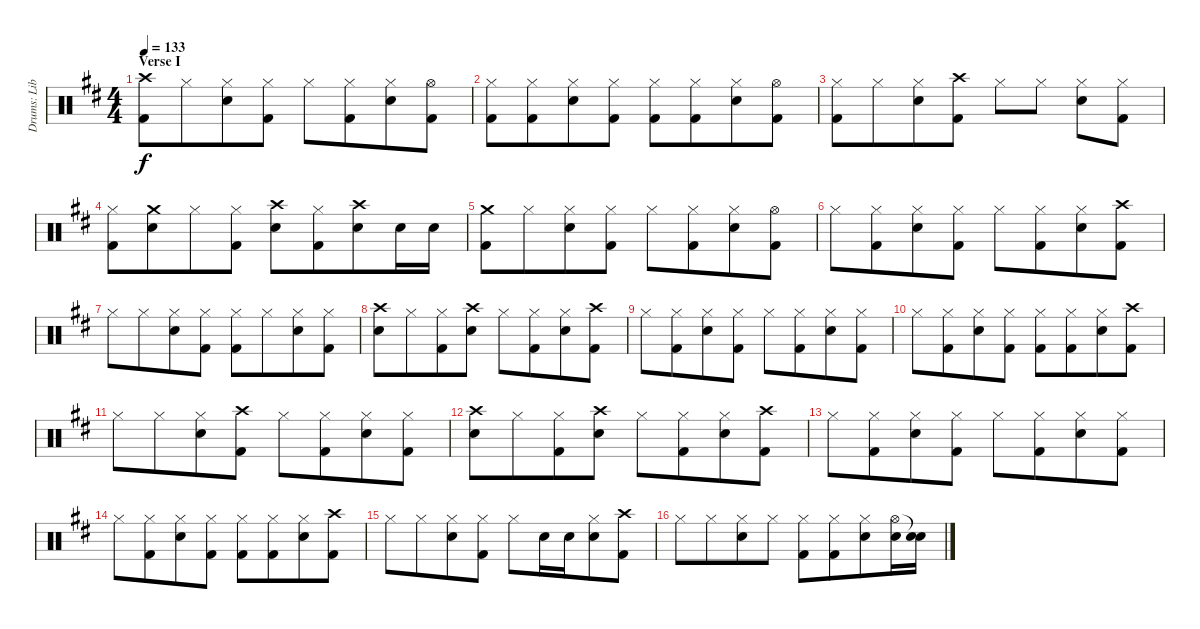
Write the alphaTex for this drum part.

\track ("Drums: Liberty" "Drums: Lib") {instrument percussion}
\staff {score}
\articulation defaults
\ts (4 4)
\section ("" "Verse I")
\tempo 133
\clef neutral
\ks d
("Crash high (hit)" "Kick (hit) 2").8{dy f} "Hi-Hat (closed)".8{beam merge} ("Hi-Hat (closed)" "Electric Snare (hit)").8 ("Hi-Hat (closed)" "Kick (hit) 2").8 "Hi-Hat (closed)".8 ("Hi-Hat (closed)" "Kick (hit) 2").8{beam merge} ("Hi-Hat (closed)" "Electric Snare (hit)").8 ("Hi-Hat (open)" "Kick (hit) 2").8 |
("Hi-Hat (closed)" "Kick (hit) 2").8 ("Hi-Hat (closed)" "Kick (hit) 2").8{beam merge} ("Hi-Hat (closed)" "Electric Snare (hit)").8 ("Hi-Hat (closed)" "Kick (hit) 2").8 ("Hi-Hat (closed)" "Kick (hit) 2").8 ("Hi-Hat (closed)" "Kick (hit) 2").8{beam merge} ("Hi-Hat (closed)" "Electric Snare (hit)").8 ("Hi-Hat (open)" "Kick (hit) 2").8 |
("Hi-Hat (closed)" "Kick (hit) 2").8 "Hi-Hat (closed)".8{beam merge} ("Hi-Hat (closed)" "Electric Snare (hit)").8 ("Crash high (hit)" "Kick (hit) 2").8 "Hi-Hat (closed)".8 "Hi-Hat (closed)".8 ("Hi-Hat (closed)" "Electric Snare (hit)").8 ("Hi-Hat (closed)" "Kick (hit) 2").8 |
("Hi-Hat (closed)" "Kick (hit) 2").8 ("Crash medium (hit)" "Electric Snare (hit)").8{beam merge} "Hi-Hat (closed)".8 ("Hi-Hat (closed)" "Kick (hit) 2").8 ("Crash high (hit)" "Electric Snare (hit)").8 ("Hi-Hat (closed)" "Kick (hit) 2").8{beam merge} ("Crash high (hit)" "Electric Snare (hit)").8 "Electric Snare (hit)".16 "Electric Snare (hit)".16 |
("Crash medium (hit)" "Kick (hit) 2").8 "Hi-Hat (closed)".8{beam merge} ("Hi-Hat (closed)" "Electric Snare (hit)").8 ("Hi-Hat (closed)" "Kick (hit) 2").8 "Hi-Hat (closed)".8 ("Hi-Hat (closed)" "Kick (hit) 2").8{beam merge} ("Hi-Hat (closed)" "Electric Snare (hit)").8 ("Hi-Hat (open)" "Kick (hit) 2").8 |
"Hi-Hat (closed)".8 ("Hi-Hat (closed)" "Kick (hit) 2").8{beam merge} ("Hi-Hat (closed)" "Electric Snare (hit)").8 ("Hi-Hat (closed)" "Kick (hit) 2").8 "Hi-Hat (closed)".8 ("Hi-Hat (closed)" "Kick (hit) 2").8{beam merge} ("Hi-Hat (closed)" "Electric Snare (hit)").8 ("Crash high (hit)" "Kick (hit) 2").8 |
"Hi-Hat (closed)".8 "Hi-Hat (closed)".8{beam merge} ("Hi-Hat (closed)" "Electric Snare (hit)").8 ("Hi-Hat (closed)" "Kick (hit) 2").8 ("Hi-Hat (closed)" "Kick (hit) 2").8 "Hi-Hat (closed)".8{beam merge} ("Hi-Hat (closed)" "Electric Snare (hit)").8 ("Hi-Hat (closed)" "Kick (hit) 2").8 |
("Crash high (hit)" "Electric Snare (hit)").8 "Hi-Hat (closed)".8{beam merge} ("Hi-Hat (closed)" "Kick (hit) 2").8 ("Crash high (hit)" "Electric Snare (hit)").8 "Hi-Hat (closed)".8 ("Hi-Hat (closed)" "Kick (hit) 2").8{beam merge} ("Hi-Hat (closed)" "Electric Snare (hit)").8 ("Crash high (hit)" "Kick (hit) 2").8 |
"Hi-Hat (closed)".8 ("Hi-Hat (closed)" "Kick (hit) 2").8{beam merge} ("Hi-Hat (closed)" "Electric Snare (hit)").8 ("Hi-Hat (closed)" "Kick (hit) 2").8 "Hi-Hat (closed)".8 ("Hi-Hat (closed)" "Kick (hit) 2").8{beam merge} ("Hi-Hat (closed)" "Electric Snare (hit)").8 ("Hi-Hat (closed)" "Kick (hit) 2").8 |
"Hi-Hat (closed)".8 ("Hi-Hat (closed)" "Kick (hit) 2").8{beam merge} ("Hi-Hat (closed)" "Electric Snare (hit)").8 ("Hi-Hat (closed)" "Kick (hit) 2").8 ("Hi-Hat (closed)" "Kick (hit) 2").8 ("Hi-Hat (closed)" "Kick (hit) 2").8{beam merge} ("Hi-Hat (closed)" "Electric Snare (hit)").8 ("Crash high (hit)" "Kick (hit) 2").8 |
"Hi-Hat (closed)".8 "Hi-Hat (closed)".8{beam merge} ("Hi-Hat (closed)" "Electric Snare (hit)").8 ("Crash high (hit)" "Kick (hit) 2").8 "Hi-Hat (closed)".8 ("Hi-Hat (closed)" "Kick (hit) 2").8{beam merge} ("Hi-Hat (closed)" "Electric Snare (hit)").8 ("Hi-Hat (closed)" "Kick (hit) 2").8 |
("Crash high (hit)" "Electric Snare (hit)").8 "Hi-Hat (closed)".8{beam merge} ("Hi-Hat (closed)" "Kick (hit) 2").8 ("Crash high (hit)" "Electric Snare (hit)").8 "Hi-Hat (closed)".8 ("Hi-Hat (closed)" "Kick (hit) 2").8{beam merge} ("Hi-Hat (closed)" "Electric Snare (hit)").8 ("Crash high (hit)" "Kick (hit) 2").8 |
"Hi-Hat (closed)".8 ("Hi-Hat (closed)" "Kick (hit) 2").8{beam merge} ("Hi-Hat (closed)" "Electric Snare (hit)").8 ("Hi-Hat (closed)" "Kick (hit) 2").8 "Hi-Hat (closed)".8 ("Hi-Hat (closed)" "Kick (hit) 2").8{beam merge} ("Hi-Hat (closed)" "Electric Snare (hit)").8 ("Hi-Hat (closed)" "Kick (hit) 2").8 |
"Hi-Hat (closed)".8 ("Hi-Hat (closed)" "Kick (hit) 2").8{beam merge} ("Hi-Hat (closed)" "Electric Snare (hit)").8 ("Hi-Hat (closed)" "Kick (hit) 2").8 ("Hi-Hat (closed)" "Kick (hit) 2").8 ("Hi-Hat (closed)" "Kick (hit) 2").8{beam merge} ("Hi-Hat (closed)" "Electric Snare (hit)").8 ("Crash high (hit)" "Kick (hit) 2").8 |
"Hi-Hat (closed)".8 "Hi-Hat (closed)".8{beam merge} ("Hi-Hat (closed)" "Electric Snare (hit)").8 ("Hi-Hat (closed)" "Kick (hit) 2").8 "Hi-Hat (closed)".8 "Electric Snare (hit)".16 "Electric Snare (hit)".16{beam merge} ("Hi-Hat (closed)" "Electric Snare (hit)").8 ("Crash high (hit)" "Kick (hit) 2").8 |
"Hi-Hat (closed)".8 "Hi-Hat (closed)".8{beam merge} ("Hi-Hat (closed)" "Electric Snare (hit)").8 "Hi-Hat (closed)".8 ("Hi-Hat (closed)" "Kick (hit) 2").8 ("Hi-Hat (closed)" "Kick (hit) 2").8{beam merge} ("Hi-Hat (closed)" "Electric Snare (hit)").8 ("Hi-Hat (open)" "Electric Snare (hit)").16 ("Snare (hit)"{t} "Electric Snare (hit)").16
